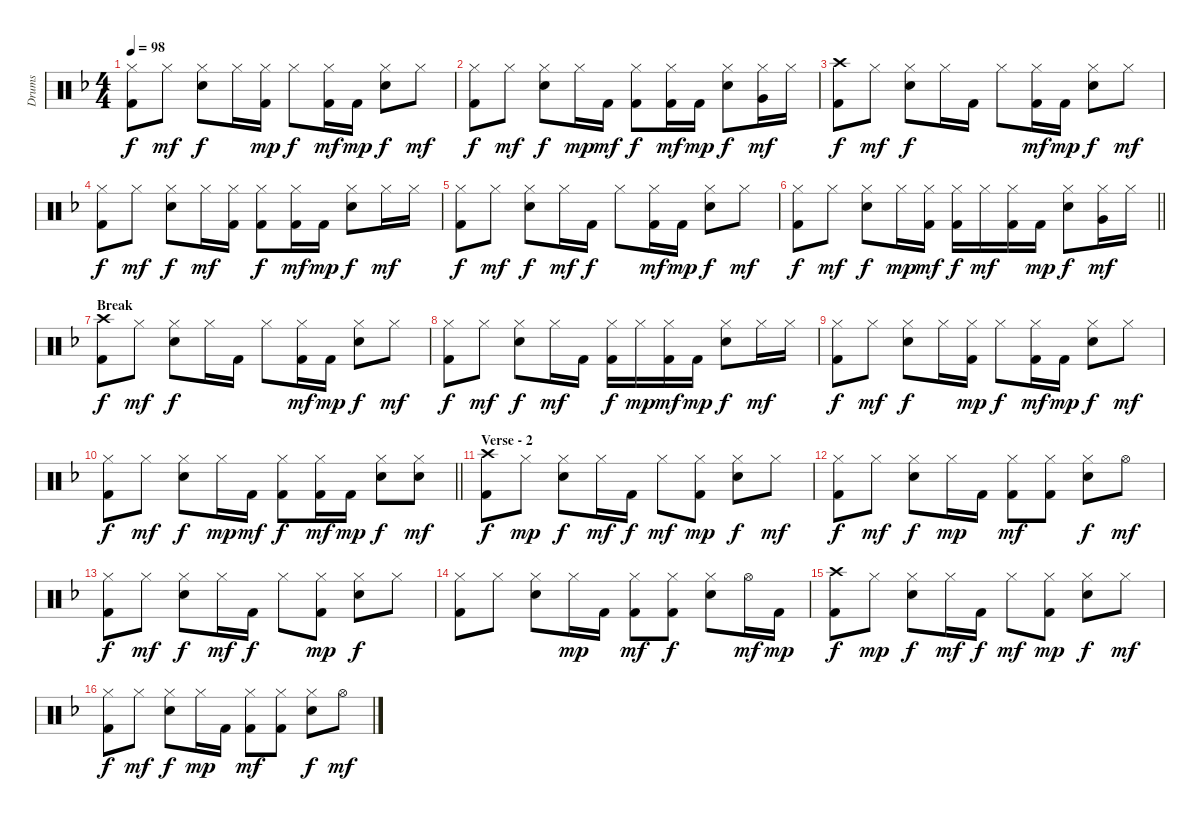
\track ("Drums" "Drums") {instrument percussion}
\staff {score}
\articulation defaults
\ts (4 4)
\tempo 98
\clef neutral
\ks f
("Hi-Hat (closed)" "Kick (hit) 2").8{dy f} "Hi-Hat (closed)".8{dy mf} ("Hi-Hat (closed)" "Electric Snare (hit)").8{dy f} "Hi-Hat (closed)".16 ("Hi-Hat (closed)" "Kick (hit) 2").16{dy mp} "Hi-Hat (closed)".8{dy f} ("Hi-Hat (closed)" "Kick (hit) 2").16{dy mf} "Kick (hit) 2".16{dy mp} ("Hi-Hat (closed)" "Electric Snare (hit)").8{dy f} "Hi-Hat (closed)".8{dy mf} |
("Hi-Hat (closed)" "Kick (hit) 2").8{dy f} "Hi-Hat (closed)".8{dy mf} ("Hi-Hat (closed)" "Electric Snare (hit)").8{dy f} "Hi-Hat (closed)".16{dy mp} "Kick (hit) 2".16{dy mf} ("Hi-Hat (closed)" "Kick (hit) 2").8{dy f} ("Hi-Hat (closed)" "Kick (hit) 2").16{dy mf} "Kick (hit) 2".16{dy mp} ("Hi-Hat (closed)" "Electric Snare (hit)").8{dy f} ("Hi-Hat (closed)" "Very Low Tom (hit)").16{dy mf} "Hi-Hat (closed)".16 |
("Crash high (hit)" "Kick (hit) 2").8{dy f} "Hi-Hat (closed)".8{dy mf} ("Hi-Hat (closed)" "Electric Snare (hit)").8{dy f} "Hi-Hat (closed)".16 "Kick (hit) 2".16 "Hi-Hat (closed)".8 ("Hi-Hat (closed)" "Kick (hit) 2").16{dy mf} "Kick (hit) 2".16{dy mp} ("Hi-Hat (closed)" "Electric Snare (hit)").8{dy f} "Hi-Hat (closed)".8{dy mf} |
("Hi-Hat (closed)" "Kick (hit) 2").8{dy f} "Hi-Hat (closed)".8{dy mf} ("Hi-Hat (closed)" "Electric Snare (hit)").8{dy f} "Hi-Hat (closed)".16{dy mf} ("Hi-Hat (closed)" "Kick (hit) 2").16 ("Hi-Hat (closed)" "Kick (hit) 2").8{dy f} ("Hi-Hat (closed)" "Kick (hit) 2").16{dy mf} "Kick (hit) 2".16{dy mp} ("Hi-Hat (closed)" "Electric Snare (hit)").8{dy f} "Hi-Hat (closed)".16{dy mf} "Hi-Hat (closed)".16 |
("Hi-Hat (closed)" "Kick (hit) 2").8{dy f} "Hi-Hat (closed)".8{dy mf} ("Hi-Hat (closed)" "Electric Snare (hit)").8{dy f} "Hi-Hat (closed)".16{dy mf} "Kick (hit) 2".16{dy f} "Hi-Hat (closed)".8 ("Hi-Hat (closed)" "Kick (hit) 2").16{dy mf} "Kick (hit) 2".16{dy mp} ("Hi-Hat (closed)" "Electric Snare (hit)").8{dy f} "Hi-Hat (closed)".8{dy mf} |
\barLineRight lightlight
("Hi-Hat (closed)" "Kick (hit) 2").8{dy f} "Hi-Hat (closed)".8{dy mf} ("Hi-Hat (closed)" "Electric Snare (hit)").8{dy f} "Hi-Hat (closed)".16{dy mp} ("Hi-Hat (closed)" "Kick (hit) 2").16{dy mf} ("Hi-Hat (closed)" "Kick (hit) 2").16{dy f} "Hi-Hat (closed)".16{dy mf} ("Hi-Hat (closed)" "Kick (hit) 2").16 "Kick (hit) 2".16{dy mp} ("Hi-Hat (closed)" "Electric Snare (hit)").8{dy f} ("Hi-Hat (closed)" "Very Low Tom (hit)").16{dy mf} "Hi-Hat (closed)".16 |
\section ("" "Break")
("Crash high (hit)" "Kick (hit) 2").8{dy f} "Hi-Hat (closed)".8{dy mf} ("Hi-Hat (closed)" "Electric Snare (hit)").8{dy f} "Hi-Hat (closed)".16 "Kick (hit) 2".16 "Hi-Hat (closed)".8 ("Hi-Hat (closed)" "Kick (hit) 2").16{dy mf} "Kick (hit) 2".16{dy mp} ("Hi-Hat (closed)" "Electric Snare (hit)").8{dy f} "Hi-Hat (closed)".8{dy mf} |
("Hi-Hat (closed)" "Kick (hit) 2").8{dy f} "Hi-Hat (closed)".8{dy mf} ("Hi-Hat (closed)" "Electric Snare (hit)").8{dy f} "Hi-Hat (closed)".16{dy mf} "Kick (hit) 2".16 ("Hi-Hat (closed)" "Kick (hit) 2").16{dy f} "Hi-Hat (closed)".16{dy mp} ("Hi-Hat (closed)" "Kick (hit) 2").16{dy mf} "Kick (hit) 2".16{dy mp} ("Hi-Hat (closed)" "Electric Snare (hit)").8{dy f} "Hi-Hat (closed)".16{dy mf} "Hi-Hat (closed)".16 |
("Hi-Hat (closed)" "Kick (hit) 2").8{dy f} "Hi-Hat (closed)".8{dy mf} ("Hi-Hat (closed)" "Electric Snare (hit)").8{dy f} "Hi-Hat (closed)".16 ("Hi-Hat (closed)" "Kick (hit) 2").16{dy mp} "Hi-Hat (closed)".8{dy f} ("Hi-Hat (closed)" "Kick (hit) 2").16{dy mf} "Kick (hit) 2".16{dy mp} ("Hi-Hat (closed)" "Electric Snare (hit)").8{dy f} "Hi-Hat (closed)".8{dy mf} |
\barLineRight lightlight
("Hi-Hat (closed)" "Kick (hit) 2").8{dy f} "Hi-Hat (closed)".8{dy mf} ("Hi-Hat (closed)" "Electric Snare (hit)").8{dy f} "Hi-Hat (closed)".16{dy mp} "Kick (hit) 2".16{dy mf} ("Hi-Hat (closed)" "Kick (hit) 2").8{dy f} ("Hi-Hat (closed)" "Kick (hit) 2").16{dy mf} "Kick (hit) 2".16{dy mp} ("Hi-Hat (closed)" "Electric Snare (hit)").8{dy f} ("Hi-Hat (closed)" "Electric Snare (hit)").8{dy mf} |
\section ("" "Verse - 2")
("Crash high (hit)" "Kick (hit) 2").8{dy f volume 13} "Hi-Hat (closed)".8{dy mp} ("Hi-Hat (closed)" "Electric Snare (hit)").8{dy f} "Hi-Hat (closed)".16{dy mf} "Kick (hit) 2".16{dy f} "Hi-Hat (closed)".8{dy mf} ("Hi-Hat (closed)" "Kick (hit) 2").8{dy mp} ("Hi-Hat (closed)" "Electric Snare (hit)").8{dy f} "Hi-Hat (closed)".8{dy mf} |
("Hi-Hat (closed)" "Kick (hit) 2").8{dy f} "Hi-Hat (closed)".8{dy mf} ("Hi-Hat (closed)" "Electric Snare (hit)").8{dy f} "Hi-Hat (closed)".16{dy mp} "Kick (hit) 2".16 ("Hi-Hat (closed)" "Kick (hit) 2").8{dy mf} ("Hi-Hat (closed)" "Kick (hit) 2").8 ("Hi-Hat (closed)" "Electric Snare (hit)").8{dy f} "Hi-Hat (open)".8{dy mf} |
("Hi-Hat (closed)" "Kick (hit) 2").8{dy f} "Hi-Hat (closed)".8{dy mf} ("Hi-Hat (closed)" "Electric Snare (hit)").8{dy f} "Hi-Hat (closed)".16{dy mf} "Kick (hit) 2".16{dy f} "Hi-Hat (closed)".8 ("Hi-Hat (closed)" "Kick (hit) 2").8{dy mp} ("Hi-Hat (closed)" "Electric Snare (hit)").8{dy f} "Hi-Hat (closed)".8 |
("Hi-Hat (closed)" "Kick (hit) 2").8 "Hi-Hat (closed)".8 ("Hi-Hat (closed)" "Electric Snare (hit)").8 "Hi-Hat (closed)".16{dy mp} "Kick (hit) 2".16 ("Hi-Hat (closed)" "Kick (hit) 2").8{dy mf} ("Hi-Hat (closed)" "Kick (hit) 2").8{dy f} ("Hi-Hat (closed)" "Electric Snare (hit)").8 "Hi-Hat (open)".16{dy mf} "Kick (hit) 2".16{dy mp} |
("Crash high (hit)" "Kick (hit) 2").8{dy f} "Hi-Hat (closed)".8{dy mp} ("Hi-Hat (closed)" "Electric Snare (hit)").8{dy f} "Hi-Hat (closed)".16{dy mf} "Kick (hit) 2".16{dy f} "Hi-Hat (closed)".8{dy mf} ("Hi-Hat (closed)" "Kick (hit) 2").8{dy mp} ("Hi-Hat (closed)" "Electric Snare (hit)").8{dy f} "Hi-Hat (closed)".8{dy mf} |
("Hi-Hat (closed)" "Kick (hit) 2").8{dy f} "Hi-Hat (closed)".8{dy mf} ("Hi-Hat (closed)" "Electric Snare (hit)").8{dy f} "Hi-Hat (closed)".16{dy mp} "Kick (hit) 2".16 ("Hi-Hat (closed)" "Kick (hit) 2").8{dy mf} ("Hi-Hat (closed)" "Kick (hit) 2").8 ("Hi-Hat (closed)" "Electric Snare (hit)").8{dy f} "Hi-Hat (open)".8{dy mf}
